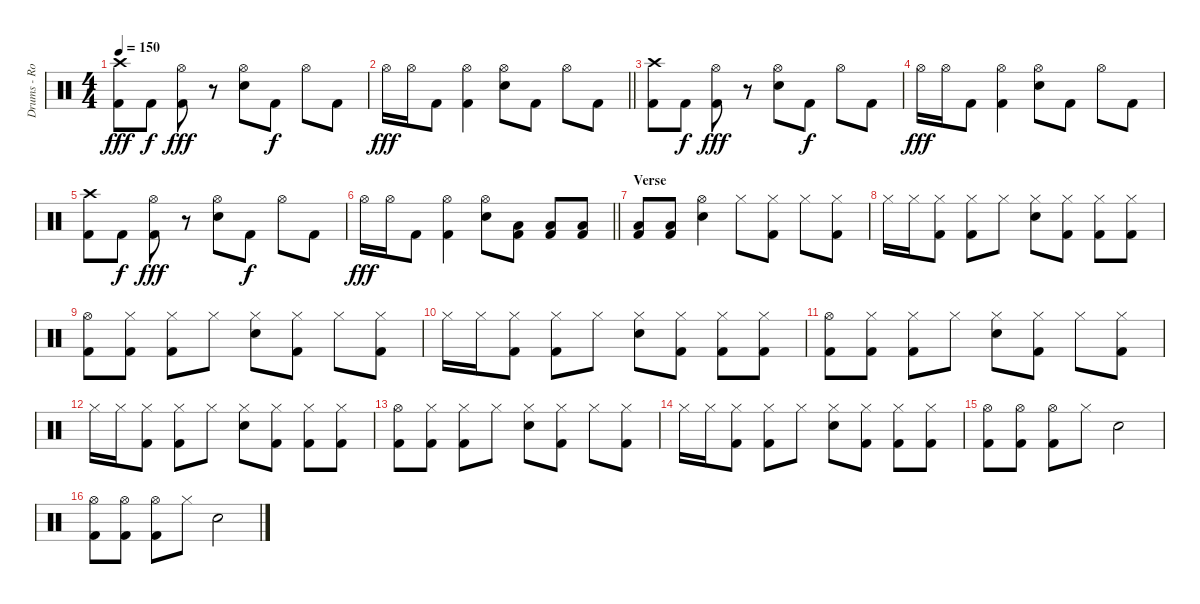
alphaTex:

\track ("Drums - Rob Bourdon" "Drums - Ro") {instrument percussion}
\staff {score}
\articulation defaults
\ts (4 4)
\tempo 150
\clef neutral
\ks c
("Crash high (hit)" "Kick (hit) 2").8{dy fff} "Kick (hit) 2".8{dy f} ("Hi-Hat (open)" "Kick (hit) 2").8{dy fff} r.8 ("Hi-Hat (open)" "Snare (hit) 2").8 "Kick (hit) 2".8{dy f} "Hi-Hat (open)".8 "Kick (hit) 2".8 |
\barLineRight lightlight "Hi-Hat (open)".16{dy fff} "Hi-Hat (open)".16 "Kick (hit) 2".8
("Hi-Hat (open)" "Kick (hit) 2").4 ("Hi-Hat (open)" "Snare (hit) 2").8 "Kick (hit) 2".8 "Hi-Hat (open)".8 "Kick (hit) 2".8 |
("Crash high (hit)" "Kick (hit) 2").8 "Kick (hit) 2".8{dy f} ("Hi-Hat (open)" "Kick (hit) 2").8{dy fff} r.8 ("Hi-Hat (open)" "Snare (hit) 2").8 "Kick (hit) 2".8{dy f} "Hi-Hat (open)".8 "Kick (hit) 2".8 |
"Hi-Hat (open)".16{dy fff} "Hi-Hat (open)".16 "Kick (hit) 2".8 ("Hi-Hat (open)" "Kick (hit) 2").4 ("Hi-Hat (open)" "Snare (hit) 2").8 "Kick (hit) 2".8 "Hi-Hat (open)".8 "Kick (hit) 2".8 |
("Crash high (hit)" "Kick (hit) 2").8 "Kick (hit) 2".8{dy f} ("Hi-Hat (open)" "Kick (hit) 2").8{dy fff} r.8 ("Hi-Hat (open)" "Snare (hit) 2").8 "Kick (hit) 2".8{dy f} "Hi-Hat (open)".8 "Kick (hit) 2".8 |
\barLineRight lightlight "Hi-Hat (open)".16{dy fff} "Hi-Hat (open)".16 "Kick (hit) 2".8
("Hi-Hat (open)" "Kick (hit) 2").4 ("Hi-Hat (open)" "Snare (hit) 2").8 ("Low Tom (hit)" "Kick (hit) 2").8 ("Low Tom (hit)" "Kick (hit) 2").8 ("Low Tom (hit)" "Kick (hit) 2").8 |
\section ("" "Verse")
("Low Tom (hit)" "Kick (hit) 2").8 ("Low Tom (hit)" "Kick (hit) 2").8 ("Hi-Hat (open)" "Snare (hit) 2").4 "Hi-Hat (closed)".8 ("Hi-Hat (closed)" "Kick (hit) 2").8 "Hi-Hat (closed)".8 ("Hi-Hat (closed)" "Kick (hit) 2").8 |
"Hi-Hat (closed)".16 "Hi-Hat (closed)".16 ("Hi-Hat (closed)" "Kick (hit) 2").8 ("Hi-Hat (closed)" "Kick (hit) 2").8 "Hi-Hat (closed)".8 ("Hi-Hat (closed)" "Snare (hit) 2").8 ("Hi-Hat (closed)" "Kick (hit) 2").8 ("Hi-Hat (closed)" "Kick (hit) 2").8 ("Hi-Hat (closed)" "Kick (hit) 2").8 |
("Hi-Hat (open)" "Kick (hit) 2").8 ("Hi-Hat (closed)" "Kick (hit) 2").8 ("Hi-Hat (closed)" "Kick (hit) 2").8 "Hi-Hat (closed)".8 ("Hi-Hat (closed)" "Snare (hit) 2").8 ("Hi-Hat (closed)" "Kick (hit) 2").8 "Hi-Hat (closed)".8 ("Hi-Hat (closed)" "Kick (hit) 2").8 |
"Hi-Hat (closed)".16 "Hi-Hat (closed)".16 ("Hi-Hat (closed)" "Kick (hit) 2").8 ("Hi-Hat (closed)" "Kick (hit) 2").8 "Hi-Hat (closed)".8 ("Hi-Hat (closed)" "Snare (hit) 2").8 ("Hi-Hat (closed)" "Kick (hit) 2").8 ("Hi-Hat (closed)" "Kick (hit) 2").8 ("Hi-Hat (closed)" "Kick (hit) 2").8 |
("Hi-Hat (open)" "Kick (hit) 2").8 ("Hi-Hat (closed)" "Kick (hit) 2").8 ("Hi-Hat (closed)" "Kick (hit) 2").8 "Hi-Hat (closed)".8 ("Hi-Hat (closed)" "Snare (hit) 2").8 ("Hi-Hat (closed)" "Kick (hit) 2").8 "Hi-Hat (closed)".8 ("Hi-Hat (closed)" "Kick (hit) 2").8 |
"Hi-Hat (closed)".16 "Hi-Hat (closed)".16 ("Hi-Hat (closed)" "Kick (hit) 2").8 ("Hi-Hat (closed)" "Kick (hit) 2").8 "Hi-Hat (closed)".8 ("Hi-Hat (closed)" "Snare (hit) 2").8 ("Hi-Hat (closed)" "Kick (hit) 2").8 ("Hi-Hat (closed)" "Kick (hit) 2").8 ("Hi-Hat (closed)" "Kick (hit) 2").8 |
("Hi-Hat (open)" "Kick (hit) 2").8 ("Hi-Hat (closed)" "Kick (hit) 2").8 ("Hi-Hat (closed)" "Kick (hit) 2").8 "Hi-Hat (closed)".8 ("Hi-Hat (closed)" "Snare (hit) 2").8 ("Hi-Hat (closed)" "Kick (hit) 2").8 "Hi-Hat (closed)".8 ("Hi-Hat (closed)" "Kick (hit) 2").8 |
"Hi-Hat (closed)".16 "Hi-Hat (closed)".16 ("Hi-Hat (closed)" "Kick (hit) 2").8 ("Hi-Hat (closed)" "Kick (hit) 2").8 "Hi-Hat (closed)".8 ("Hi-Hat (closed)" "Snare (hit) 2").8 ("Hi-Hat (closed)" "Kick (hit) 2").8 ("Hi-Hat (closed)" "Kick (hit) 2").8 ("Hi-Hat (closed)" "Kick (hit) 2").8 |
("Hi-Hat (open)" "Kick (hit) 2").8 ("Hi-Hat (open)" "Kick (hit) 2").8 ("Hi-Hat (open)" "Kick (hit) 2").8 "Hi-Hat (closed)".8 "Electric Snare (hit)".2 |
("Hi-Hat (open)" "Kick (hit) 2").8 ("Hi-Hat (open)" "Kick (hit) 2").8 ("Hi-Hat (open)" "Kick (hit) 2").8 "Hi-Hat (closed)".8 "Electric Snare (hit)".2
